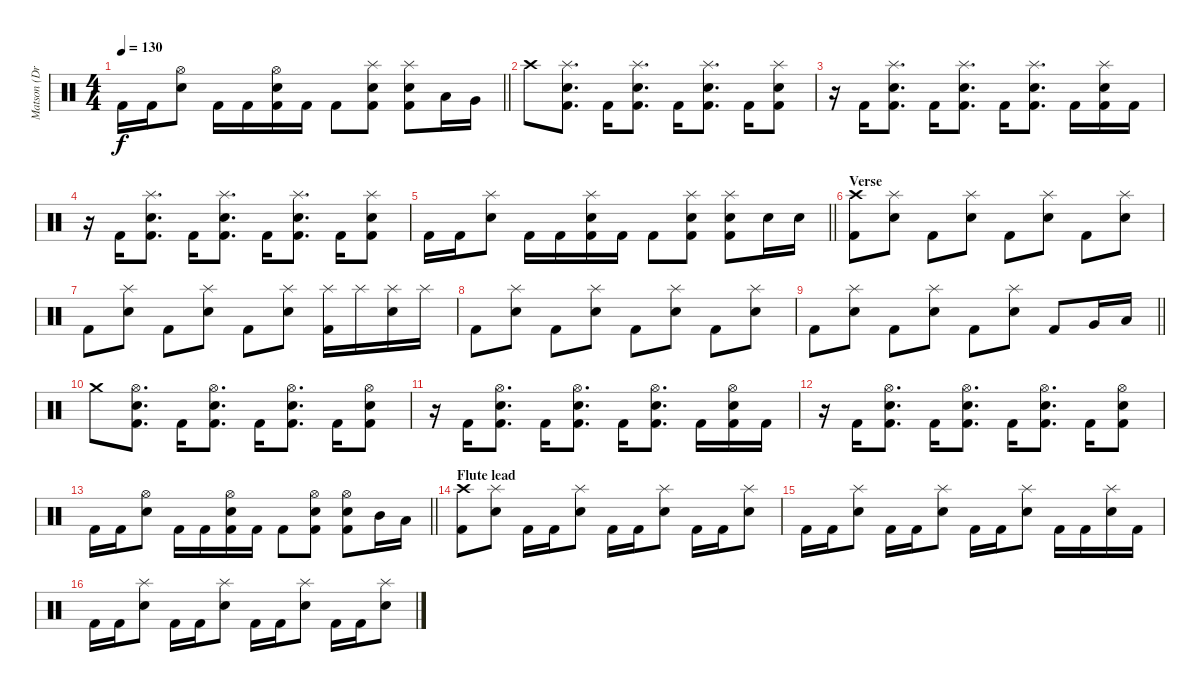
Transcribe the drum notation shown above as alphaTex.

\track ("Matson (Drums)" "Matson (Dr") {instrument percussion}
\staff {score}
\articulation defaults
\ts (4 4)
\tempo 130
\clef neutral
\barLineRight lightlight
\ks c "Kick (hit) 2".16{dy f} "Kick (hit) 2".16
("Snare (hit) 2" "Hi-Hat (open)").8 "Kick (hit) 2".16 "Kick (hit) 2".16 ("Kick (hit) 2" "Snare (hit) 2" "Hi-Hat (open)").16 "Kick (hit) 2".16 "Kick (hit) 2".8 ("Kick (hit) 2" "Snare (hit) 2" "Splash (hit)").8 ("Kick (hit) 2" "Snare (hit) 2" "Splash (hit)").8 "Low Tom (hit)".16 "Very Low Tom (hit)".16 |
\section ("" "")
"Crash high (hit)".8 ("Kick (hit) 2" "Snare (hit) 2" "Splash (hit)").8{d} "Kick (hit) 2".16 ("Kick (hit) 2" "Snare (hit) 2" "Splash (hit)").8{d} "Kick (hit) 2".16 ("Kick (hit) 2" "Snare (hit) 2" "Splash (hit)").8{d} "Kick (hit) 2".16 ("Kick (hit) 2" "Snare (hit) 2" "Splash (hit)").8 |
r.16 "Kick (hit) 2".16 ("Kick (hit) 2" "Snare (hit) 2" "Splash (hit)").8{d} "Kick (hit) 2".16 ("Kick (hit) 2" "Snare (hit) 2" "Splash (hit)").8{d} "Kick (hit) 2".16 ("Kick (hit) 2" "Snare (hit) 2" "Splash (hit)").8{d} "Kick (hit) 2".16 ("Kick (hit) 2" "Snare (hit) 2" "Splash (hit)").16 "Kick (hit) 2".16 |
r.16 "Kick (hit) 2".16 ("Kick (hit) 2" "Snare (hit) 2" "Splash (hit)").8{d} "Kick (hit) 2".16 ("Kick (hit) 2" "Snare (hit) 2" "Splash (hit)").8{d} "Kick (hit) 2".16 ("Kick (hit) 2" "Snare (hit) 2" "Splash (hit)").8{d} "Kick (hit) 2".16 ("Kick (hit) 2" "Snare (hit) 2" "Splash (hit)").8 |
\barLineRight lightlight "Kick (hit) 2".16 "Kick (hit) 2".16
("Snare (hit) 2" "Splash (hit)").8 "Kick (hit) 2".16 "Kick (hit) 2".16 ("Kick (hit) 2" "Snare (hit) 2" "Splash (hit)").16 "Kick (hit) 2".16 "Kick (hit) 2".8 ("Kick (hit) 2" "Snare (hit) 2" "Splash (hit)").8 ("Kick (hit) 2" "Snare (hit) 2" "Splash (hit)").8 "Snare (hit) 2".16 "Snare (hit) 2".16 |
\section ("" "Verse")
("Kick (hit) 2" "Crash high (hit)").8 ("Snare (hit) 2" "Splash (hit)").8 "Kick (hit) 2".8 ("Snare (hit) 2" "Splash (hit)").8 "Kick (hit) 2".8 ("Snare (hit) 2" "Splash (hit)").8 "Kick (hit) 2".8 ("Snare (hit) 2" "Splash (hit)").8 |
"Kick (hit) 2".8 ("Snare (hit) 2" "Splash (hit)").8 "Kick (hit) 2".8 ("Snare (hit) 2" "Splash (hit)").8 "Kick (hit) 2".8 ("Snare (hit) 2" "Splash (hit)").8 ("Kick (hit) 2" "Splash (hit)").16 "Splash (hit)".16 ("Snare (hit) 2" "Splash (hit)").16 "Splash (hit)".16 |
"Kick (hit) 2".8 ("Snare (hit) 2" "Splash (hit)").8 "Kick (hit) 2".8 ("Snare (hit) 2" "Splash (hit)").8 "Kick (hit) 2".8 ("Snare (hit) 2" "Splash (hit)").8 "Kick (hit) 2".8 ("Snare (hit) 2" "Splash (hit)").8 |
\barLineRight lightlight "Kick (hit) 2".8
("Snare (hit) 2" "Splash (hit)").8 "Kick (hit) 2".8 ("Snare (hit) 2" "Splash (hit)").8 "Kick (hit) 2".8 ("Snare (hit) 2" "Splash (hit)").8 "Kick (hit) 2".8 "Very Low Tom (hit)".16 "Low Floor Tom (hit)".16 |
\section ("" "")
"Crash medium (hit)".8 ("Kick (hit) 2" "Snare (hit) 2" "Hi-Hat (open)").8{d} "Kick (hit) 2".16 ("Kick (hit) 2" "Snare (hit) 2" "Hi-Hat (open)").8{d} "Kick (hit) 2".16 ("Kick (hit) 2" "Snare (hit) 2" "Hi-Hat (open)").8{d} "Kick (hit) 2".16 ("Kick (hit) 2" "Snare (hit) 2" "Hi-Hat (open)").8 |
r.16 "Kick (hit) 2".16 ("Kick (hit) 2" "Snare (hit) 2" "Hi-Hat (open)").8{d} "Kick (hit) 2".16 ("Kick (hit) 2" "Snare (hit) 2" "Hi-Hat (open)").8{d} "Kick (hit) 2".16 ("Kick (hit) 2" "Snare (hit) 2" "Hi-Hat (open)").8{d} "Kick (hit) 2".16 ("Kick (hit) 2" "Snare (hit) 2" "Hi-Hat (open)").16 "Kick (hit) 2".16 |
r.16 "Kick (hit) 2".16 ("Kick (hit) 2" "Snare (hit) 2" "Hi-Hat (open)").8{d} "Kick (hit) 2".16 ("Kick (hit) 2" "Snare (hit) 2" "Hi-Hat (open)").8{d} "Kick (hit) 2".16 ("Kick (hit) 2" "Snare (hit) 2" "Hi-Hat (open)").8{d} "Kick (hit) 2".16 ("Kick (hit) 2" "Snare (hit) 2" "Hi-Hat (open)").8 |
\barLineRight lightlight "Kick (hit) 2".16 "Kick (hit) 2".16
("Snare (hit) 2" "Hi-Hat (open)").8 "Kick (hit) 2".16 "Kick (hit) 2".16 ("Kick (hit) 2" "Snare (hit) 2" "Hi-Hat (open)").16 "Kick (hit) 2".16 "Kick (hit) 2".8 ("Kick (hit) 2" "Snare (hit) 2" "Hi-Hat (open)").8 ("Kick (hit) 2" "Snare (hit) 2" "Hi-Hat (open)").8 "Mid Tom (hit)".16 "Low Tom (hit)".16 |
\section ("" "Flute lead")
("Kick (hit) 2" "Crash high (hit)").8 ("Snare (hit) 2" "Splash (hit)").8 "Kick (hit) 2".16 "Kick (hit) 2".16 ("Snare (hit) 2" "Splash (hit)").8 "Kick (hit) 2".16 "Kick (hit) 2".16 ("Snare (hit) 2" "Splash (hit)").8 "Kick (hit) 2".16 "Kick (hit) 2".16 ("Snare (hit) 2" "Splash (hit)").8 |
"Kick (hit) 2".16 "Kick (hit) 2".16 ("Snare (hit) 2" "Splash (hit)").8 "Kick (hit) 2".16 "Kick (hit) 2".16 ("Snare (hit) 2" "Splash (hit)").8 "Kick (hit) 2".16 "Kick (hit) 2".16 ("Snare (hit) 2" "Splash (hit)").8 "Kick (hit) 2".16 "Kick (hit) 2".16 ("Snare (hit) 2" "Splash (hit)").16 "Kick (hit) 2".16 |
"Kick (hit) 2".16 "Kick (hit) 2".16 ("Snare (hit) 2" "Splash (hit)").8 "Kick (hit) 2".16 "Kick (hit) 2".16 ("Snare (hit) 2" "Splash (hit)").8 "Kick (hit) 2".16 "Kick (hit) 2".16 ("Snare (hit) 2" "Splash (hit)").8 "Kick (hit) 2".16 "Kick (hit) 2".16 ("Snare (hit) 2" "Splash (hit)").8
